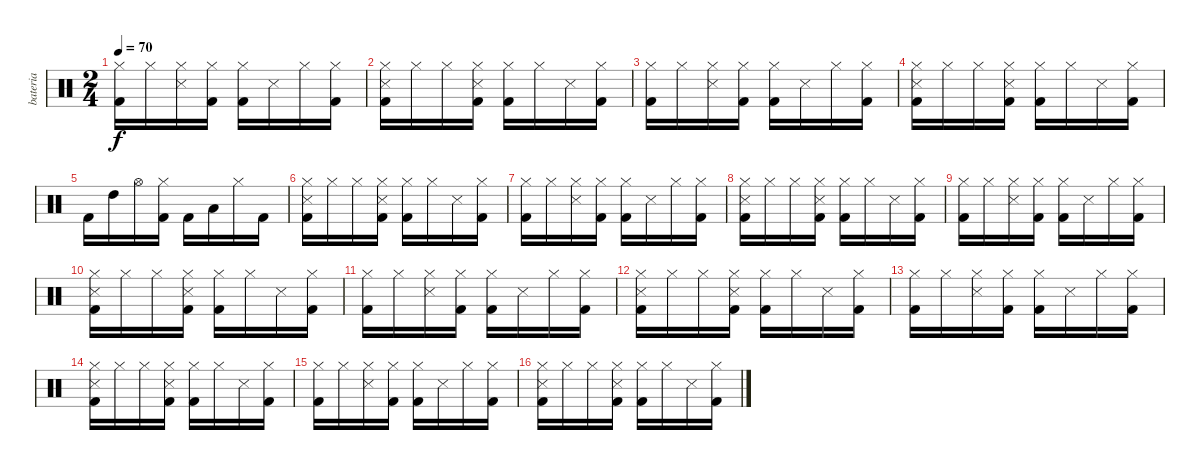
\track ("bateria" "bateria") {instrument percussion}
\staff {score}
\articulation defaults
\ts (2 4)
\tempo 70
\clef neutral
\ks c
("Hi-Hat (closed)" "Kick (hit) 2").16{dy f} "Hi-Hat (closed)".16 ("Hi-Hat (closed)" "Snare (side stick) 3").16 ("Hi-Hat (closed)" "Kick (hit) 2").16 ("Hi-Hat (closed)" "Kick (hit) 2").16 "Snare (side stick) 3".16 "Hi-Hat (closed)".16 ("Hi-Hat (closed)" "Kick (hit) 2").16 |
("Hi-Hat (closed)" "Snare (side stick) 3" "Kick (hit) 2").16 "Hi-Hat (closed)".16 "Hi-Hat (closed)".16 ("Hi-Hat (closed)" "Snare (side stick) 3" "Kick (hit) 2").16 ("Hi-Hat (closed)" "Kick (hit) 2").16 "Hi-Hat (closed)".16 "Snare (side stick) 3".16 ("Hi-Hat (closed)" "Kick (hit) 2").16 |
("Hi-Hat (closed)" "Kick (hit) 2").16 "Hi-Hat (closed)".16 ("Hi-Hat (closed)" "Snare (side stick) 3").16 ("Hi-Hat (closed)" "Kick (hit) 2").16 ("Hi-Hat (closed)" "Kick (hit) 2").16 "Snare (side stick) 3".16 "Hi-Hat (closed)".16 ("Hi-Hat (closed)" "Kick (hit) 2").16 |
("Hi-Hat (closed)" "Snare (side stick) 3" "Kick (hit) 2").16 "Hi-Hat (closed)".16 "Hi-Hat (closed)".16 ("Hi-Hat (closed)" "Snare (side stick) 3" "Kick (hit) 2").16 ("Hi-Hat (closed)" "Kick (hit) 2").16 "Hi-Hat (closed)".16 "Snare (side stick) 3".16 ("Hi-Hat (closed)" "Kick (hit) 2").16 |
"Kick (hit) 2".16 "High Tom (hit)".16 "Hi-Hat (open)".16 ("Hi-Hat (closed)" "Kick (hit) 2").16 "Kick (hit) 2".16 "Low Tom (hit)".16 "Hi-Hat (closed)".16 "Kick (hit) 2".16 |
("Hi-Hat (closed)" "Snare (side stick) 3" "Kick (hit) 2").16 "Hi-Hat (closed)".16 "Hi-Hat (closed)".16 ("Hi-Hat (closed)" "Snare (side stick) 3" "Kick (hit) 2").16 ("Hi-Hat (closed)" "Kick (hit) 2").16 "Hi-Hat (closed)".16 "Snare (side stick) 3".16 ("Hi-Hat (closed)" "Kick (hit) 2").16 |
("Hi-Hat (closed)" "Kick (hit) 2").16 "Hi-Hat (closed)".16 ("Hi-Hat (closed)" "Snare (side stick) 3").16 ("Hi-Hat (closed)" "Kick (hit) 2").16 ("Hi-Hat (closed)" "Kick (hit) 2").16 "Snare (side stick) 3".16 "Hi-Hat (closed)".16 ("Hi-Hat (closed)" "Kick (hit) 2").16 |
("Hi-Hat (closed)" "Snare (side stick) 3" "Kick (hit) 2").16 "Hi-Hat (closed)".16 "Hi-Hat (closed)".16 ("Hi-Hat (closed)" "Snare (side stick) 3" "Kick (hit) 2").16 ("Hi-Hat (closed)" "Kick (hit) 2").16 "Hi-Hat (closed)".16 "Snare (side stick) 3".16 ("Hi-Hat (closed)" "Kick (hit) 2").16 |
("Hi-Hat (closed)" "Kick (hit) 2").16 "Hi-Hat (closed)".16 ("Hi-Hat (closed)" "Snare (side stick) 3").16 ("Hi-Hat (closed)" "Kick (hit) 2").16 ("Hi-Hat (closed)" "Kick (hit) 2").16 "Snare (side stick) 3".16 "Hi-Hat (closed)".16 ("Hi-Hat (closed)" "Kick (hit) 2").16 |
("Hi-Hat (closed)" "Snare (side stick) 3" "Kick (hit) 2").16 "Hi-Hat (closed)".16 "Hi-Hat (closed)".16 ("Hi-Hat (closed)" "Snare (side stick) 3" "Kick (hit) 2").16 ("Hi-Hat (closed)" "Kick (hit) 2").16 "Hi-Hat (closed)".16 "Snare (side stick) 3".16 ("Hi-Hat (closed)" "Kick (hit) 2").16 |
("Hi-Hat (closed)" "Kick (hit) 2").16 "Hi-Hat (closed)".16 ("Hi-Hat (closed)" "Snare (side stick) 3").16 ("Hi-Hat (closed)" "Kick (hit) 2").16 ("Hi-Hat (closed)" "Kick (hit) 2").16 "Snare (side stick) 3".16 "Hi-Hat (closed)".16 ("Hi-Hat (closed)" "Kick (hit) 2").16 |
("Hi-Hat (closed)" "Snare (side stick) 3" "Kick (hit) 2").16 "Hi-Hat (closed)".16 "Hi-Hat (closed)".16 ("Hi-Hat (closed)" "Snare (side stick) 3" "Kick (hit) 2").16 ("Hi-Hat (closed)" "Kick (hit) 2").16 "Hi-Hat (closed)".16 "Snare (side stick) 3".16 ("Hi-Hat (closed)" "Kick (hit) 2").16 |
("Hi-Hat (closed)" "Kick (hit) 2").16 "Hi-Hat (closed)".16 ("Hi-Hat (closed)" "Snare (side stick) 3").16 ("Hi-Hat (closed)" "Kick (hit) 2").16 ("Hi-Hat (closed)" "Kick (hit) 2").16 "Snare (side stick) 3".16 "Hi-Hat (closed)".16 ("Hi-Hat (closed)" "Kick (hit) 2").16 |
("Hi-Hat (closed)" "Snare (side stick) 3" "Kick (hit) 2").16 "Hi-Hat (closed)".16 "Hi-Hat (closed)".16 ("Hi-Hat (closed)" "Snare (side stick) 3" "Kick (hit) 2").16 ("Hi-Hat (closed)" "Kick (hit) 2").16 "Hi-Hat (closed)".16 "Snare (side stick) 3".16 ("Hi-Hat (closed)" "Kick (hit) 2").16 |
("Hi-Hat (closed)" "Kick (hit) 2").16 "Hi-Hat (closed)".16 ("Hi-Hat (closed)" "Snare (side stick) 3").16 ("Hi-Hat (closed)" "Kick (hit) 2").16 ("Hi-Hat (closed)" "Kick (hit) 2").16 "Snare (side stick) 3".16 "Hi-Hat (closed)".16 ("Hi-Hat (closed)" "Kick (hit) 2").16 |
("Hi-Hat (closed)" "Snare (side stick) 3" "Kick (hit) 2").16 "Hi-Hat (closed)".16 "Hi-Hat (closed)".16 ("Hi-Hat (closed)" "Snare (side stick) 3" "Kick (hit) 2").16 ("Hi-Hat (closed)" "Kick (hit) 2").16 "Hi-Hat (closed)".16 "Snare (side stick) 3".16 ("Hi-Hat (closed)" "Kick (hit) 2").16
